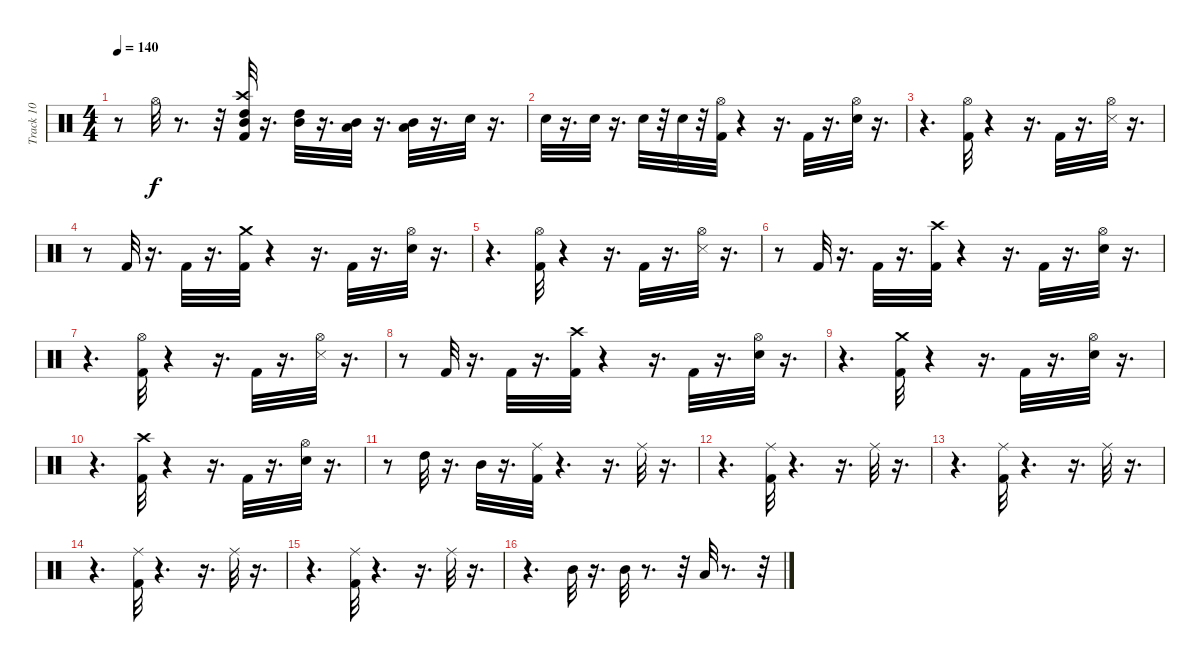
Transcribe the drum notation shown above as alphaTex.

\track ("Track 10" "Track 10") {instrument percussion}
\staff {score}
\articulation defaults
\ts (4 4)
\tempo 140
\clef neutral
\ks c
r.8{dy f} "Hi-Hat (open)".32 r.8{d} r.32 ("Mid Tom (hit)" "High Tom (hit)" "Crash high (hit)" "Kick (hit) 2").32 r.16{d} ("Mid Tom (hit)" "High Tom (hit)").32 r.16{d} ("Low Tom (hit)" "Mid Tom (hit)").32 r.16{d} ("Low Tom (hit)" "Mid Tom (hit)").32 r.16{d} "Electric Snare (hit)".32 r.16{d} |
"Electric Snare (hit)".32 r.16{d} "Electric Snare (hit)".32 r.16{d} "Electric Snare (hit)".32 r.32 "Electric Snare (hit)".32 r.32 ("Kick (hit) 2" "Hi-Hat (open)").32 r.4 r.16{d} "Kick (hit) 2".32 r.16{d} ("Electric Snare (hit)" "Hi-Hat (open)").32 r.16{d} |
r.4{d} ("Hi-Hat (open)" "Kick (hit) 2").32 r.4 r.16{d} "Kick (hit) 2".32 r.16{d} ("Snare (side stick) 3" "Hi-Hat (open)").32 r.16{d} |
r.8 "Kick (hit) 2".32 r.16{d} "Kick (hit) 2".32 r.16{d} ("Crash medium (hit)" "Kick (hit) 2").32 r.4 r.16{d} "Kick (hit) 2".32 r.16{d} ("Hi-Hat (open)" "Electric Snare (hit)").32 r.16{d} |
r.4{d} ("Hi-Hat (open)" "Kick (hit) 2").32 r.4 r.16{d} "Kick (hit) 2".32 r.16{d} ("Hi-Hat (open)" "Snare (side stick) 3").32 r.16{d} |
r.8 "Kick (hit) 2".32 r.16{d} "Kick (hit) 2".32 r.16{d} ("Kick (hit) 2" "Crash high (hit)").32 r.4 r.16{d} "Kick (hit) 2".32 r.16{d} ("Hi-Hat (open)" "Electric Snare (hit)").32 r.16{d} |
r.4{d} ("Hi-Hat (open)" "Kick (hit) 2").32 r.4 r.16{d} "Kick (hit) 2".32 r.16{d} ("Snare (side stick) 3" "Hi-Hat (open)").32 r.16{d} |
r.8 "Kick (hit) 2".32 r.16{d} "Kick (hit) 2".32 r.16{d} ("Kick (hit) 2" "Crash high (hit)").32 r.4 r.16{d} "Kick (hit) 2".32 r.16{d} ("Electric Snare (hit)" "Hi-Hat (open)").32 r.16{d} |
r.4{d} ("Kick (hit) 2" "Crash medium (hit)").32 r.4 r.16{d} "Kick (hit) 2".32 r.16{d} ("Electric Snare (hit)" "Hi-Hat (open)").32 r.16{d} |
r.4{d} ("Kick (hit) 2" "Crash high (hit)").32 r.4 r.16{d} "Kick (hit) 2".32 r.16{d} ("Hi-Hat (open)" "Electric Snare (hit)").32 r.16{d} |
r.8 "High Tom (hit)".32 r.16{d} "Mid Tom (hit)".32 r.16{d} ("Ride (middle)" "Kick (hit) 2").32 r.4{d} r.16{d} "Ride (middle)".32 r.16{d} |
r.4{d} ("Kick (hit) 2" "Ride (middle)").32 r.4{d} r.16{d} "Ride (middle)".32 r.16{d} |
r.4{d} ("Ride (middle)" "Kick (hit) 2").32 r.4{d} r.16{d} "Ride (middle)".32 r.16{d} |
r.4{d} ("Ride (middle)" "Kick (hit) 2").32 r.4{d} r.16{d} "Ride (middle)".32 r.16{d} |
r.4{d} ("Ride (middle)" "Kick (hit) 2").32 r.4{d} r.16{d} "Ride (middle)".32 r.16{d} |
r.4{d} "Mid Tom (hit)".32 r.16{d} "Mid Tom (hit)".32 r.8{d} r.32 "Low Tom (hit)".32 r.8{d} r.32
